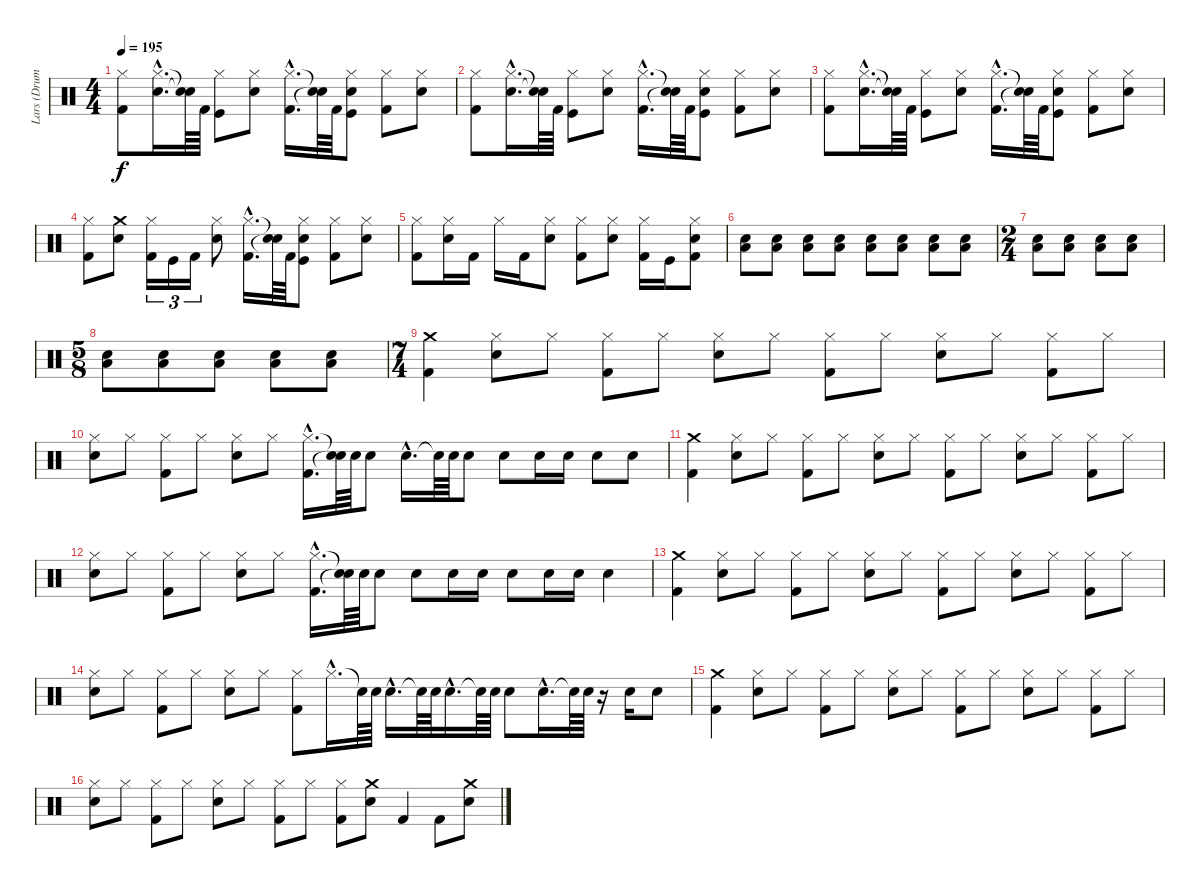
\track ("Lars (Drums)" "Lars (Drum") {instrument percussion}
\staff {score}
\articulation defaults
\ts (4 4)
\tempo 195
\clef neutral
\ks c
("Kick (hit) 2" "Hi-Hat (closed)").8{dy f} ("Snare (hit) 2"{hac} "Hi-Hat (closed)"{hac}).16{d} ("Snare (hit)"{t} "Snare (hit)"{t}).64 "Kick (hit) 2".64 ("Kick (hit)" "Hi-Hat (closed)").8 ("Snare (hit) 2" "Hi-Hat (closed)").8 ("Kick (hit) 2"{hac} "Hi-Hat (closed)"{hac}).16{d} ("Snare (hit)"{t} "Snare (hit)"{t}).64 "Kick (hit) 2".64 ("Kick (hit)" "Snare (hit) 2" "Hi-Hat (closed)").8 ("Kick (hit) 2" "Hi-Hat (closed)").8 ("Snare (hit) 2" "Hi-Hat (closed)").8 |
("Kick (hit) 2" "Hi-Hat (closed)").8 ("Snare (hit) 2"{hac} "Hi-Hat (closed)"{hac}).16{d} ("Snare (hit)"{t} "Snare (hit)"{t}).64 "Kick (hit) 2".64 ("Kick (hit)" "Hi-Hat (closed)").8 ("Snare (hit) 2" "Hi-Hat (closed)").8 ("Kick (hit) 2"{hac} "Hi-Hat (closed)"{hac}).16{d} ("Snare (hit)"{t} "Snare (hit)"{t}).64 "Kick (hit) 2".64 ("Kick (hit)" "Snare (hit) 2" "Hi-Hat (closed)").8 ("Kick (hit) 2" "Hi-Hat (closed)").8 ("Snare (hit) 2" "Hi-Hat (closed)").8 |
("Kick (hit) 2" "Hi-Hat (closed)").8 ("Snare (hit) 2"{hac} "Hi-Hat (closed)"{hac}).16{d} ("Snare (hit)"{t} "Snare (hit)"{t}).64 "Kick (hit) 2".64 ("Kick (hit)" "Hi-Hat (closed)").8 ("Snare (hit) 2" "Hi-Hat (closed)").8 ("Kick (hit) 2"{hac} "Hi-Hat (closed)"{hac}).16{d} ("Snare (hit)"{t} "Snare (hit)"{t}).64 "Kick (hit) 2".64 ("Kick (hit)" "Snare (hit) 2" "Hi-Hat (closed)").8 ("Kick (hit) 2" "Hi-Hat (closed)").8 ("Snare (hit) 2" "Hi-Hat (closed)").8 |
("Hi-Hat (closed)" "Kick (hit) 2").8 ("Crash medium (hit)" "Snare (hit) 2").8 ("Kick (hit) 2" "Hi-Hat (closed)").16{tu (3 2)} "Kick (hit)".16{tu (3 2)} "Kick (hit) 2".16{tu (3 2)} ("Snare (hit) 2" "Hi-Hat (closed)").8 ("Kick (hit) 2"{hac} "Hi-Hat (closed)"{hac}).16{d} ("Snare (hit)"{t} "Snare (hit)"{t}).64 "Kick (hit) 2".64 ("Kick (hit)" "Snare (hit) 2" "Hi-Hat (closed)").8 ("Kick (hit) 2" "Hi-Hat (closed)").8 ("Snare (hit) 2" "Hi-Hat (closed)").8 |
("Hi-Hat (closed)" "Kick (hit) 2").8 ("Snare (hit) 2" "Hi-Hat (closed)").16 "Kick (hit) 2".16 "Hi-Hat (closed)".16 "Kick (hit) 2".16 ("Snare (hit) 2" "Hi-Hat (closed)").8 ("Hi-Hat (closed)" "Kick (hit) 2").8 ("Snare (hit) 2" "Hi-Hat (closed)").8 ("Hi-Hat (closed)" "Kick (hit) 2").16 "Kick (hit)".16 ("Kick (hit) 2" "Snare (hit) 2" "Hi-Hat (closed)").8 |
("Snare (hit) 2" "Low Tom (hit)").8 ("Snare (hit) 2" "Low Tom (hit)").8 ("Snare (hit) 2" "Low Tom (hit)").8 ("Snare (hit) 2" "Low Tom (hit)").8 ("Snare (hit) 2" "Low Tom (hit)").8 ("Snare (hit) 2" "Low Tom (hit)").8 ("Snare (hit) 2" "Low Tom (hit)").8 ("Snare (hit) 2" "Low Tom (hit)").8 |
\ts (2 4)
("Snare (hit) 2" "Low Tom (hit)").8 ("Snare (hit) 2" "Low Tom (hit)").8 ("Snare (hit) 2" "Low Tom (hit)").8 ("Snare (hit) 2" "Low Tom (hit)").8 |
\ts (5 8)
("Snare (hit) 2" "Low Tom (hit)").8 ("Snare (hit) 2" "Low Tom (hit)").8 ("Snare (hit) 2" "Low Tom (hit)").8 ("Snare (hit) 2" "Low Tom (hit)").8 ("Snare (hit) 2" "Low Tom (hit)").8 |
\ts (7 4)
("Kick (hit) 2" "Crash medium (hit)").4 ("Hi-Hat (closed)" "Snare (hit) 2").8 "Hi-Hat (closed)".8 ("Hi-Hat (closed)" "Kick (hit) 2").8 "Hi-Hat (closed)".8 ("Snare (hit) 2" "Hi-Hat (closed)").8 "Hi-Hat (closed)".8 ("Hi-Hat (closed)" "Kick (hit) 2").8 "Hi-Hat (closed)".8 ("Snare (hit) 2" "Hi-Hat (closed)").8 "Hi-Hat (closed)".8 ("Hi-Hat (closed)" "Kick (hit) 2").8 "Hi-Hat (closed)".8 |
("Hi-Hat (closed)" "Snare (hit) 2").8 "Hi-Hat (closed)".8 ("Hi-Hat (closed)" "Kick (hit) 2").8 "Hi-Hat (closed)".8 ("Hi-Hat (closed)" "Snare (hit) 2").8 "Hi-Hat (closed)".8 ("Hi-Hat (closed)"{hac} "Kick (hit) 2"{hac}).16{d} ("Snare (hit)"{t} "Snare (hit)"{t}).64 "Snare (hit) 2".64 "Snare (hit) 2".8 "Snare (hit) 2"{hac}.16{d} "Snare (hit)"{t}.64 "Snare (hit) 2".64 "Snare (hit) 2".8 "Snare (hit) 2".8 "Snare (hit) 2".16 "Snare (hit) 2".16 "Snare (hit) 2".8 "Snare (hit) 2".8 |
("Kick (hit) 2" "Crash medium (hit)").4 ("Hi-Hat (closed)" "Snare (hit) 2").8 "Hi-Hat (closed)".8 ("Hi-Hat (closed)" "Kick (hit) 2").8 "Hi-Hat (closed)".8 ("Snare (hit) 2" "Hi-Hat (closed)").8 "Hi-Hat (closed)".8 ("Hi-Hat (closed)" "Kick (hit) 2").8 "Hi-Hat (closed)".8 ("Snare (hit) 2" "Hi-Hat (closed)").8 "Hi-Hat (closed)".8 ("Hi-Hat (closed)" "Kick (hit) 2").8 "Hi-Hat (closed)".8 |
("Hi-Hat (closed)" "Snare (hit) 2").8 "Hi-Hat (closed)".8 ("Hi-Hat (closed)" "Kick (hit) 2").8 "Hi-Hat (closed)".8 ("Hi-Hat (closed)" "Snare (hit) 2").8 "Hi-Hat (closed)".8 ("Hi-Hat (closed)"{hac} "Kick (hit) 2"{hac}).16{d} ("Snare (hit)"{t} "Snare (hit)"{t}).64 "Snare (hit) 2".64 "Snare (hit) 2".8 "Snare (hit) 2".8 "Snare (hit) 2".16 "Snare (hit) 2".16 "Snare (hit) 2".8 "Snare (hit) 2".16 "Snare (hit) 2".16 "Snare (hit) 2".4 |
("Kick (hit) 2" "Crash medium (hit)").4 ("Hi-Hat (closed)" "Snare (hit) 2").8 "Hi-Hat (closed)".8 ("Hi-Hat (closed)" "Kick (hit) 2").8 "Hi-Hat (closed)".8 ("Snare (hit) 2" "Hi-Hat (closed)").8 "Hi-Hat (closed)".8 ("Hi-Hat (closed)" "Kick (hit) 2").8 "Hi-Hat (closed)".8 ("Snare (hit) 2" "Hi-Hat (closed)").8 "Hi-Hat (closed)".8 ("Hi-Hat (closed)" "Kick (hit) 2").8 "Hi-Hat (closed)".8 |
("Hi-Hat (closed)" "Snare (hit) 2").8 "Hi-Hat (closed)".8 ("Hi-Hat (closed)" "Kick (hit) 2").8 "Hi-Hat (closed)".8 ("Hi-Hat (closed)" "Snare (hit) 2").8 "Hi-Hat (closed)".8 ("Hi-Hat (closed)" "Kick (hit) 2").8 "Hi-Hat (closed)"{hac}.16{d} "Snare (hit)"{t}.64 "Snare (hit) 2".64 "Snare (hit) 2"{hac}.16{d} "Snare (hit)"{t}.64 "Snare (hit) 2".64 "Snare (hit) 2"{hac}.16{d} "Snare (hit)"{t}.64 "Snare (hit) 2".64 "Snare (hit) 2".8 "Snare (hit) 2"{hac}.16{d} "Snare (hit)"{t}.64 "Snare (hit) 2".64 r.16 "Snare (hit) 2".16 "Snare (hit) 2".8 |
("Kick (hit) 2" "Crash medium (hit)").4 ("Hi-Hat (closed)" "Snare (hit) 2").8 "Hi-Hat (closed)".8 ("Kick (hit) 2" "Hi-Hat (closed)").8 "Hi-Hat (closed)".8 ("Snare (hit) 2" "Hi-Hat (closed)").8 "Hi-Hat (closed)".8 ("Kick (hit) 2" "Hi-Hat (closed)").8 "Hi-Hat (closed)".8 ("Snare (hit) 2" "Hi-Hat (closed)").8 "Hi-Hat (closed)".8 ("Kick (hit) 2" "Hi-Hat (closed)").8 "Hi-Hat (closed)".8 |
("Hi-Hat (closed)" "Snare (hit) 2").8 "Hi-Hat (closed)".8 ("Hi-Hat (closed)" "Kick (hit) 2").8 "Hi-Hat (closed)".8 ("Snare (hit) 2" "Hi-Hat (closed)").8 "Hi-Hat (closed)".8 ("Hi-Hat (closed)" "Kick (hit) 2").8 "Hi-Hat (closed)".8 ("Hi-Hat (closed)" "Kick (hit) 2").8 ("Crash medium (hit)" "Snare (hit) 2").8 "Kick (hit) 2".4 "Kick (hit) 2".8 ("Snare (hit) 2" "Crash medium (hit)").8
